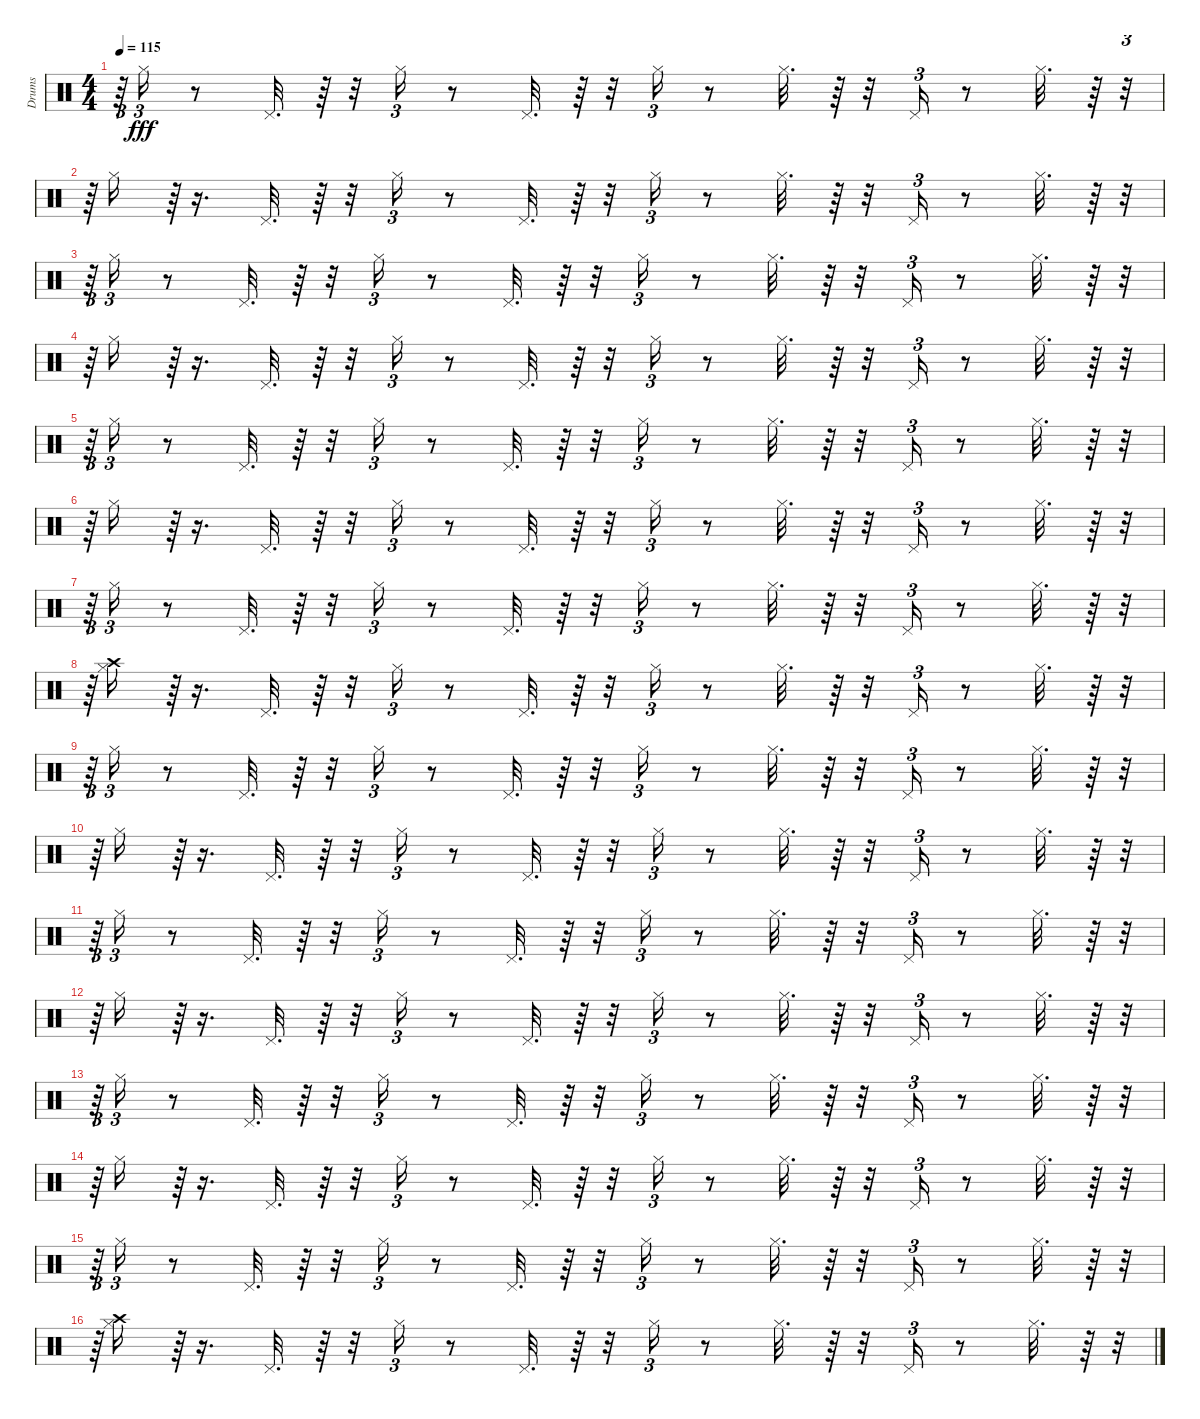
\track ("Drums" "Drums") {instrument percussion}
\staff {score}
\articulation defaults
\ts (4 4)
\tempo 115
\clef neutral
\ks c
r.64{tu (3 2) dy fff} "Hi-Hat (closed)".16{tu (3 2)} r.8 "Pedal Hi-Hat (hit)".32{d} r.64 r.32 "Hi-Hat (closed)".16{tu (3 2)} r.8 "Pedal Hi-Hat (hit)".32{d} r.64 r.32 "Hi-Hat (closed)".16{tu (3 2)} r.8 "Hi-Hat (closed)".32{d} r.64 r.32 "Pedal Hi-Hat (hit)".16{tu (3 2)} r.8 "Hi-Hat (closed)".32{d} r.64 r.32{tu (3 2)} |
r.64{tu (3 2)} "Hi-Hat (closed)".16 r.64{tu (3 2)} r.16{d} "Pedal Hi-Hat (hit)".32{d} r.64 r.32 "Hi-Hat (closed)".16{tu (3 2)} r.8 "Pedal Hi-Hat (hit)".32{d} r.64 r.32 "Hi-Hat (closed)".16{tu (3 2)} r.8 "Hi-Hat (closed)".32{d} r.64 r.32 "Pedal Hi-Hat (hit)".16{tu (3 2)} r.8 "Hi-Hat (closed)".32{d} r.64 r.32{tu (3 2)} |
r.64{tu (3 2)} "Hi-Hat (closed)".16{tu (3 2)} r.8 "Pedal Hi-Hat (hit)".32{d} r.64 r.32 "Hi-Hat (closed)".16{tu (3 2)} r.8 "Pedal Hi-Hat (hit)".32{d} r.64 r.32 "Hi-Hat (closed)".16{tu (3 2)} r.8 "Hi-Hat (closed)".32{d} r.64 r.32 "Pedal Hi-Hat (hit)".16{tu (3 2)} r.8 "Hi-Hat (closed)".32{d} r.64 r.32{tu (3 2)} |
r.64{tu (3 2)} "Hi-Hat (closed)".16 r.64{tu (3 2)} r.16{d} "Pedal Hi-Hat (hit)".32{d} r.64 r.32 "Hi-Hat (closed)".16{tu (3 2)} r.8 "Pedal Hi-Hat (hit)".32{d} r.64 r.32 "Hi-Hat (closed)".16{tu (3 2)} r.8 "Hi-Hat (closed)".32{d} r.64 r.32 "Pedal Hi-Hat (hit)".16{tu (3 2)} r.8 "Hi-Hat (closed)".32{d} r.64 r.32{tu (3 2)} |
r.64{tu (3 2)} "Hi-Hat (closed)".16{tu (3 2)} r.8 "Pedal Hi-Hat (hit)".32{d} r.64 r.32 "Hi-Hat (closed)".16{tu (3 2)} r.8 "Pedal Hi-Hat (hit)".32{d} r.64 r.32 "Hi-Hat (closed)".16{tu (3 2)} r.8 "Hi-Hat (closed)".32{d} r.64 r.32 "Pedal Hi-Hat (hit)".16{tu (3 2)} r.8 "Hi-Hat (closed)".32{d} r.64 r.32{tu (3 2)} |
r.64{tu (3 2)} "Hi-Hat (closed)".16 r.64{tu (3 2)} r.16{d} "Pedal Hi-Hat (hit)".32{d} r.64 r.32 "Hi-Hat (closed)".16{tu (3 2)} r.8 "Pedal Hi-Hat (hit)".32{d} r.64 r.32 "Hi-Hat (closed)".16{tu (3 2)} r.8 "Hi-Hat (closed)".32{d} r.64 r.32 "Pedal Hi-Hat (hit)".16{tu (3 2)} r.8 "Hi-Hat (closed)".32{d} r.64 r.32{tu (3 2)} |
r.64{tu (3 2)} "Hi-Hat (closed)".16{tu (3 2)} r.8 "Pedal Hi-Hat (hit)".32{d} r.64 r.32 "Hi-Hat (closed)".16{tu (3 2)} r.8 "Pedal Hi-Hat (hit)".32{d} r.64 r.32 "Hi-Hat (closed)".16{tu (3 2)} r.8 "Hi-Hat (closed)".32{d} r.64 r.32 "Pedal Hi-Hat (hit)".16{tu (3 2)} r.8 "Hi-Hat (closed)".32{d} r.64 r.32{tu (3 2)} |
r.64{tu (3 2)} ("Crash high (hit)" "Hi-Hat (closed)").16 r.64{tu (3 2)} r.16{d} "Pedal Hi-Hat (hit)".32{d} r.64 r.32 "Hi-Hat (closed)".16{tu (3 2)} r.8 "Pedal Hi-Hat (hit)".32{d} r.64 r.32 "Hi-Hat (closed)".16{tu (3 2)} r.8 "Hi-Hat (closed)".32{d} r.64 r.32 "Pedal Hi-Hat (hit)".16{tu (3 2)} r.8 "Hi-Hat (closed)".32{d} r.64 r.32{tu (3 2)} |
r.64{tu (3 2)} "Hi-Hat (closed)".16{tu (3 2)} r.8 "Pedal Hi-Hat (hit)".32{d} r.64 r.32 "Hi-Hat (closed)".16{tu (3 2)} r.8 "Pedal Hi-Hat (hit)".32{d} r.64 r.32 "Hi-Hat (closed)".16{tu (3 2)} r.8 "Hi-Hat (closed)".32{d} r.64 r.32 "Pedal Hi-Hat (hit)".16{tu (3 2)} r.8 "Hi-Hat (closed)".32{d} r.64 r.32{tu (3 2)} |
r.64{tu (3 2)} "Hi-Hat (closed)".16 r.64{tu (3 2)} r.16{d} "Pedal Hi-Hat (hit)".32{d} r.64 r.32 "Hi-Hat (closed)".16{tu (3 2)} r.8 "Pedal Hi-Hat (hit)".32{d} r.64 r.32 "Hi-Hat (closed)".16{tu (3 2)} r.8 "Hi-Hat (closed)".32{d} r.64 r.32 "Pedal Hi-Hat (hit)".16{tu (3 2)} r.8 "Hi-Hat (closed)".32{d} r.64 r.32{tu (3 2)} |
r.64{tu (3 2)} "Hi-Hat (closed)".16{tu (3 2)} r.8 "Pedal Hi-Hat (hit)".32{d} r.64 r.32 "Hi-Hat (closed)".16{tu (3 2)} r.8 "Pedal Hi-Hat (hit)".32{d} r.64 r.32 "Hi-Hat (closed)".16{tu (3 2)} r.8 "Hi-Hat (closed)".32{d} r.64 r.32 "Pedal Hi-Hat (hit)".16{tu (3 2)} r.8 "Hi-Hat (closed)".32{d} r.64 r.32{tu (3 2)} |
r.64{tu (3 2)} "Hi-Hat (closed)".16 r.64{tu (3 2)} r.16{d} "Pedal Hi-Hat (hit)".32{d} r.64 r.32 "Hi-Hat (closed)".16{tu (3 2)} r.8 "Pedal Hi-Hat (hit)".32{d} r.64 r.32 "Hi-Hat (closed)".16{tu (3 2)} r.8 "Hi-Hat (closed)".32{d} r.64 r.32 "Pedal Hi-Hat (hit)".16{tu (3 2)} r.8 "Hi-Hat (closed)".32{d} r.64 r.32{tu (3 2)} |
r.64{tu (3 2)} "Hi-Hat (closed)".16{tu (3 2)} r.8 "Pedal Hi-Hat (hit)".32{d} r.64 r.32 "Hi-Hat (closed)".16{tu (3 2)} r.8 "Pedal Hi-Hat (hit)".32{d} r.64 r.32 "Hi-Hat (closed)".16{tu (3 2)} r.8 "Hi-Hat (closed)".32{d} r.64 r.32 "Pedal Hi-Hat (hit)".16{tu (3 2)} r.8 "Hi-Hat (closed)".32{d} r.64 r.32{tu (3 2)} |
r.64{tu (3 2)} "Hi-Hat (closed)".16 r.64{tu (3 2)} r.16{d} "Pedal Hi-Hat (hit)".32{d} r.64 r.32 "Hi-Hat (closed)".16{tu (3 2)} r.8 "Pedal Hi-Hat (hit)".32{d} r.64 r.32 "Hi-Hat (closed)".16{tu (3 2)} r.8 "Hi-Hat (closed)".32{d} r.64 r.32 "Pedal Hi-Hat (hit)".16{tu (3 2)} r.8 "Hi-Hat (closed)".32{d} r.64 r.32{tu (3 2)} |
r.64{tu (3 2)} "Hi-Hat (closed)".16{tu (3 2)} r.8 "Pedal Hi-Hat (hit)".32{d} r.64 r.32 "Hi-Hat (closed)".16{tu (3 2)} r.8 "Pedal Hi-Hat (hit)".32{d} r.64 r.32 "Hi-Hat (closed)".16{tu (3 2)} r.8 "Hi-Hat (closed)".32{d} r.64 r.32 "Pedal Hi-Hat (hit)".16{tu (3 2)} r.8 "Hi-Hat (closed)".32{d} r.64 r.32{tu (3 2)} |
r.64{tu (3 2)} ("Crash high (hit)" "Hi-Hat (closed)").16 r.64{tu (3 2)} r.16{d} "Pedal Hi-Hat (hit)".32{d} r.64 r.32 "Hi-Hat (closed)".16{tu (3 2)} r.8 "Pedal Hi-Hat (hit)".32{d} r.64 r.32 "Hi-Hat (closed)".16{tu (3 2)} r.8 "Hi-Hat (closed)".32{d} r.64 r.32 "Pedal Hi-Hat (hit)".16{tu (3 2)} r.8 "Hi-Hat (closed)".32{d} r.64 r.32{tu (3 2)}
